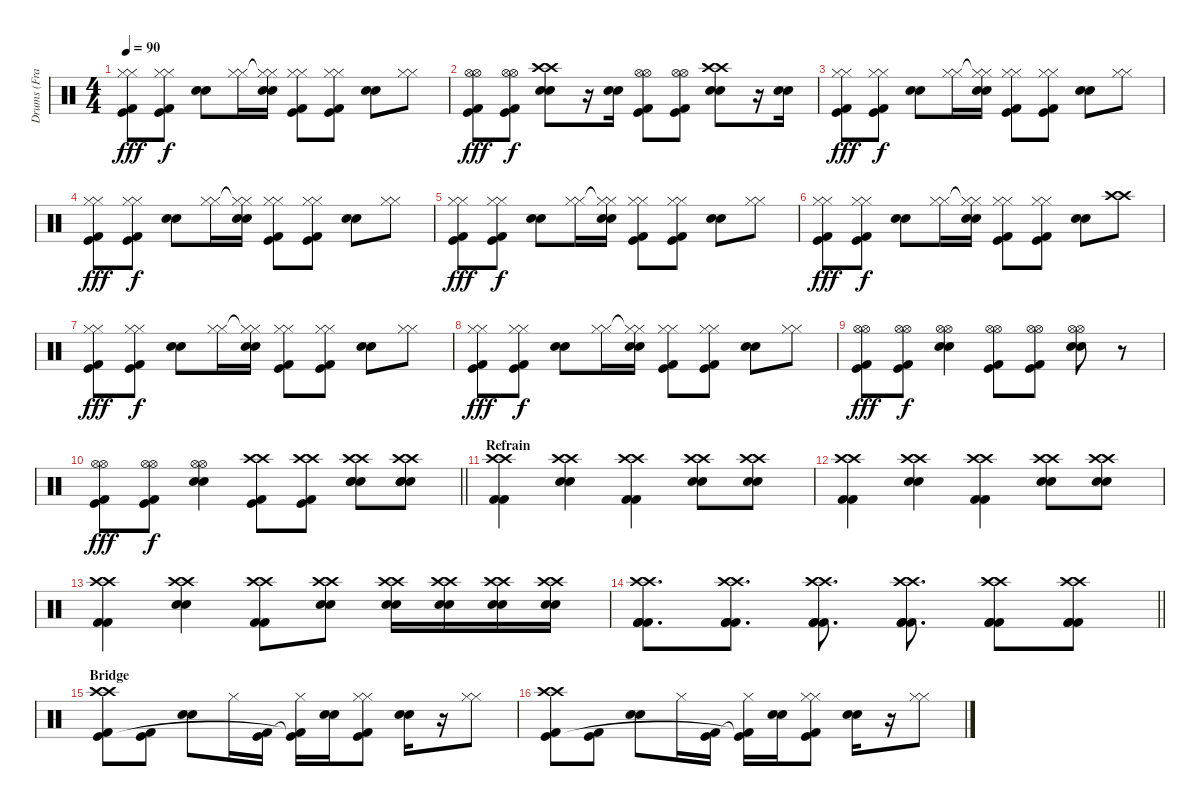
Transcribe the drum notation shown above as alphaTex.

\track ("Drums (Frank Ferrer)" "Drums (Fra") {instrument percussion}
\staff {score}
\articulation defaults
\ts (4 4)
\tempo 90
\clef neutral
\ks c
("Hi-Hat (closed)" "Hi-Hat (closed)" "Kick (hit)" "Kick (hit) 2").8{dy fff} ("Hi-Hat (closed)" "Hi-Hat (closed)" "Kick (hit)" "Kick (hit) 2").8{dy f} ("Snare (hit) 2" "Snare (hit) 2").8 ("Hi-Hat (closed)" "Hi-Hat (closed)").16 ("Hi-Hat (closed)"{t} "Hi-Hat (closed)"{t} "Snare (hit) 2" "Snare (hit) 2").16 ("Hi-Hat (closed)" "Hi-Hat (closed)" "Kick (hit)" "Kick (hit) 2").8 ("Hi-Hat (closed)" "Hi-Hat (closed)" "Kick (hit)" "Kick (hit) 2").8 ("Snare (hit) 2" "Snare (hit) 2").8 ("Hi-Hat (closed)" "Hi-Hat (closed)").8 |
("Hi-Hat (open)" "Hi-Hat (open)" "Kick (hit)" "Kick (hit) 2").8{dy fff} ("Hi-Hat (open)" "Hi-Hat (open)" "Kick (hit)" "Kick (hit) 2").8{dy f} ("Crash high (hit)" "Crash high (hit)" "Snare (hit) 2" "Snare (hit) 2").8 r.16 ("Snare (hit) 2" "Snare (hit) 2").16 ("Hi-Hat (open)" "Hi-Hat (open)" "Kick (hit)" "Kick (hit) 2").8 ("Hi-Hat (open)" "Hi-Hat (open)" "Kick (hit)" "Kick (hit) 2").8 ("Crash high (hit)" "Crash high (hit)" "Snare (hit) 2" "Snare (hit) 2").8 r.16 ("Snare (hit) 2" "Snare (hit) 2").16 |
("Hi-Hat (closed)" "Hi-Hat (closed)" "Kick (hit)" "Kick (hit) 2").8{dy fff} ("Hi-Hat (closed)" "Hi-Hat (closed)" "Kick (hit)" "Kick (hit) 2").8{dy f} ("Snare (hit) 2" "Snare (hit) 2").8 ("Hi-Hat (closed)" "Hi-Hat (closed)").16 ("Hi-Hat (closed)"{t} "Hi-Hat (closed)"{t} "Snare (hit) 2" "Snare (hit) 2").16 ("Hi-Hat (closed)" "Hi-Hat (closed)" "Kick (hit)" "Kick (hit) 2").8 ("Hi-Hat (closed)" "Hi-Hat (closed)" "Kick (hit)" "Kick (hit) 2").8 ("Snare (hit) 2" "Snare (hit) 2").8 ("Hi-Hat (closed)" "Hi-Hat (closed)").8 |
("Hi-Hat (closed)" "Hi-Hat (closed)" "Kick (hit)" "Kick (hit) 2").8{dy fff} ("Hi-Hat (closed)" "Hi-Hat (closed)" "Kick (hit)" "Kick (hit) 2").8{dy f} ("Snare (hit) 2" "Snare (hit) 2").8 ("Hi-Hat (closed)" "Hi-Hat (closed)").16 ("Hi-Hat (closed)"{t} "Hi-Hat (closed)"{t} "Snare (hit) 2" "Snare (hit) 2").16 ("Hi-Hat (closed)" "Hi-Hat (closed)" "Kick (hit)" "Kick (hit) 2").8 ("Hi-Hat (closed)" "Hi-Hat (closed)" "Kick (hit)" "Kick (hit) 2").8 ("Snare (hit) 2" "Snare (hit) 2").8 ("Hi-Hat (closed)" "Hi-Hat (closed)").8 |
("Hi-Hat (closed)" "Hi-Hat (closed)" "Kick (hit)" "Kick (hit) 2").8{dy fff} ("Hi-Hat (closed)" "Hi-Hat (closed)" "Kick (hit)" "Kick (hit) 2").8{dy f} ("Snare (hit) 2" "Snare (hit) 2").8 ("Hi-Hat (closed)" "Hi-Hat (closed)").16 ("Hi-Hat (closed)"{t} "Hi-Hat (closed)"{t} "Snare (hit) 2" "Snare (hit) 2").16 ("Hi-Hat (closed)" "Hi-Hat (closed)" "Kick (hit)" "Kick (hit) 2").8 ("Hi-Hat (closed)" "Hi-Hat (closed)" "Kick (hit)" "Kick (hit) 2").8 ("Snare (hit) 2" "Snare (hit) 2").8 ("Hi-Hat (closed)" "Hi-Hat (closed)").8 |
("Hi-Hat (closed)" "Hi-Hat (closed)" "Kick (hit)" "Kick (hit) 2").8{dy fff} ("Hi-Hat (closed)" "Hi-Hat (closed)" "Kick (hit)" "Kick (hit) 2").8{dy f} ("Snare (hit) 2" "Snare (hit) 2").8 ("Hi-Hat (closed)" "Hi-Hat (closed)").16 ("Hi-Hat (closed)"{t} "Hi-Hat (closed)"{t} "Snare (hit) 2" "Snare (hit) 2").16 ("Hi-Hat (closed)" "Hi-Hat (closed)" "Kick (hit)" "Kick (hit) 2").8 ("Hi-Hat (closed)" "Hi-Hat (closed)" "Kick (hit)" "Kick (hit) 2").8 ("Snare (hit) 2" "Snare (hit) 2").8 ("Crash high (hit)" "Crash high (hit)").8 |
("Hi-Hat (closed)" "Hi-Hat (closed)" "Kick (hit)" "Kick (hit) 2").8{dy fff} ("Hi-Hat (closed)" "Hi-Hat (closed)" "Kick (hit)" "Kick (hit) 2").8{dy f} ("Snare (hit) 2" "Snare (hit) 2").8 ("Hi-Hat (closed)" "Hi-Hat (closed)").16 ("Hi-Hat (closed)"{t} "Hi-Hat (closed)"{t} "Snare (hit) 2" "Snare (hit) 2").16 ("Hi-Hat (closed)" "Hi-Hat (closed)" "Kick (hit)" "Kick (hit) 2").8 ("Hi-Hat (closed)" "Hi-Hat (closed)" "Kick (hit)" "Kick (hit) 2").8 ("Snare (hit) 2" "Snare (hit) 2").8 ("Hi-Hat (closed)" "Hi-Hat (closed)").8 |
("Hi-Hat (closed)" "Hi-Hat (closed)" "Kick (hit)" "Kick (hit) 2").8{dy fff} ("Hi-Hat (closed)" "Hi-Hat (closed)" "Kick (hit)" "Kick (hit) 2").8{dy f} ("Snare (hit) 2" "Snare (hit) 2").8 ("Hi-Hat (closed)" "Hi-Hat (closed)").16 ("Hi-Hat (closed)"{t} "Hi-Hat (closed)"{t} "Snare (hit) 2" "Snare (hit) 2").16 ("Hi-Hat (closed)" "Hi-Hat (closed)" "Kick (hit)" "Kick (hit) 2").8 ("Hi-Hat (closed)" "Hi-Hat (closed)" "Kick (hit)" "Kick (hit) 2").8 ("Snare (hit) 2" "Snare (hit) 2").8 ("Hi-Hat (closed)" "Hi-Hat (closed)").8 |
("Hi-Hat (open)" "Hi-Hat (open)" "Kick (hit)" "Kick (hit) 2").8{dy fff} ("Hi-Hat (open)" "Hi-Hat (open)" "Kick (hit)" "Kick (hit) 2").8{dy f} ("Hi-Hat (open)" "Hi-Hat (open)" "Snare (hit) 2" "Snare (hit) 2").4 ("Hi-Hat (open)" "Hi-Hat (open)" "Kick (hit)" "Kick (hit) 2").8 ("Hi-Hat (open)" "Hi-Hat (open)" "Kick (hit)" "Kick (hit) 2").8 ("Hi-Hat (open)" "Hi-Hat (open)" "Snare (hit) 2" "Snare (hit) 2").8 r.8 |
\barLineRight lightlight
("Hi-Hat (open)" "Hi-Hat (open)" "Kick (hit)" "Kick (hit) 2").8{dy fff} ("Hi-Hat (open)" "Hi-Hat (open)" "Kick (hit)" "Kick (hit) 2").8{dy f} ("Hi-Hat (open)" "Hi-Hat (open)" "Snare (hit) 2" "Snare (hit) 2").4 ("Crash high (hit)" "Crash high (hit)" "Kick (hit)" "Kick (hit) 2").8 ("Crash high (hit)" "Crash high (hit)" "Kick (hit)" "Kick (hit) 2").8 ("Crash high (hit)" "Crash high (hit)" "Snare (hit) 2" "Snare (hit) 2" "Snare (hit) 2").8 ("Crash high (hit)" "Crash high (hit)" "Snare (hit) 2" "Snare (hit) 2" "Snare (hit) 2").8 |
\section ("" "Refrain")
("Crash high (hit)" "Crash high (hit)" "Kick (hit) 2" "Kick (hit) 2").4{volume 13} ("Crash high (hit)" "Crash high (hit)" "Snare (hit) 2" "Snare (hit) 2").4 ("Crash high (hit)" "Crash high (hit)" "Kick (hit) 2" "Kick (hit) 2").4 ("Crash high (hit)" "Crash high (hit)" "Snare (hit) 2" "Snare (hit) 2").8 ("Crash high (hit)" "Crash high (hit)" "Snare (hit) 2" "Snare (hit) 2").8 |
("Crash high (hit)" "Crash high (hit)" "Kick (hit) 2" "Kick (hit) 2").4 ("Crash high (hit)" "Crash high (hit)" "Snare (hit) 2" "Snare (hit) 2").4 ("Crash high (hit)" "Crash high (hit)" "Kick (hit) 2" "Kick (hit) 2").4 ("Crash high (hit)" "Crash high (hit)" "Snare (hit) 2" "Snare (hit) 2").8 ("Crash high (hit)" "Crash high (hit)" "Snare (hit) 2" "Snare (hit) 2").8 |
("Crash high (hit)" "Crash high (hit)" "Kick (hit) 2" "Kick (hit) 2").4 ("Crash high (hit)" "Crash high (hit)" "Snare (hit) 2" "Snare (hit) 2").4 ("Crash high (hit)" "Crash high (hit)" "Kick (hit) 2" "Kick (hit) 2").8 ("Crash high (hit)" "Crash high (hit)" "Snare (hit) 2" "Snare (hit) 2").8 ("Crash high (hit)" "Crash high (hit)" "Snare (hit) 2" "Snare (hit) 2").16 ("Crash high (hit)" "Crash high (hit)" "Snare (hit) 2" "Snare (hit) 2").16 ("Crash high (hit)" "Crash high (hit)" "Snare (hit) 2" "Snare (hit) 2").16 ("Crash high (hit)" "Crash high (hit)" "Snare (hit) 2" "Snare (hit) 2").16 |
\barLineRight lightlight
("Crash high (hit)" "Crash high (hit)" "Kick (hit) 2" "Kick (hit) 2" "Kick (hit) 2").8{d} ("Crash high (hit)" "Crash high (hit)" "Kick (hit) 2" "Kick (hit) 2" "Kick (hit) 2").8{d} ("Crash high (hit)" "Crash high (hit)" "Kick (hit) 2" "Kick (hit) 2" "Kick (hit) 2").8{d} ("Crash high (hit)" "Crash high (hit)" "Kick (hit) 2" "Kick (hit) 2" "Kick (hit) 2").8{d} ("Crash high (hit)" "Crash high (hit)" "Kick (hit) 2" "Kick (hit) 2" "Kick (hit) 2").8 ("Crash high (hit)" "Crash high (hit)" "Kick (hit) 2" "Kick (hit) 2" "Kick (hit) 2").8 |
\section ("" "Bridge")
("Crash high (hit)" "Crash high (hit)" "Kick (hit)" "Kick (hit) 2").8{volume 13} ("Kick (hit)" "Kick (hit) 2").8 ("Snare (hit) 2" "Snare (hit) 2").8 "Hi-Hat (closed)".16 ("Kick (hit)" "Kick (hit) 2").16 ("Hi-Hat (closed)" "Kick (hit)"{t} "Kick (hit) 2"{t}).16 ("Snare (hit) 2" "Snare (hit) 2").16 ("Hi-Hat (closed)" "Hi-Hat (closed)" "Kick (hit)" "Kick (hit) 2").8 ("Snare (hit) 2" "Snare (hit) 2").16 r.16 ("Hi-Hat (closed)" "Hi-Hat (closed)").8 |
("Crash high (hit)" "Crash high (hit)" "Kick (hit)" "Kick (hit) 2").8 ("Kick (hit)" "Kick (hit) 2").8 ("Snare (hit) 2" "Snare (hit) 2").8 "Hi-Hat (closed)".16 ("Kick (hit)" "Kick (hit) 2").16 ("Hi-Hat (closed)" "Kick (hit)"{t} "Kick (hit) 2"{t}).16 ("Snare (hit) 2" "Snare (hit) 2").16 ("Hi-Hat (closed)" "Hi-Hat (closed)" "Kick (hit)" "Kick (hit) 2").8 ("Snare (hit) 2" "Snare (hit) 2").16 r.16 ("Hi-Hat (closed)" "Hi-Hat (closed)").8
